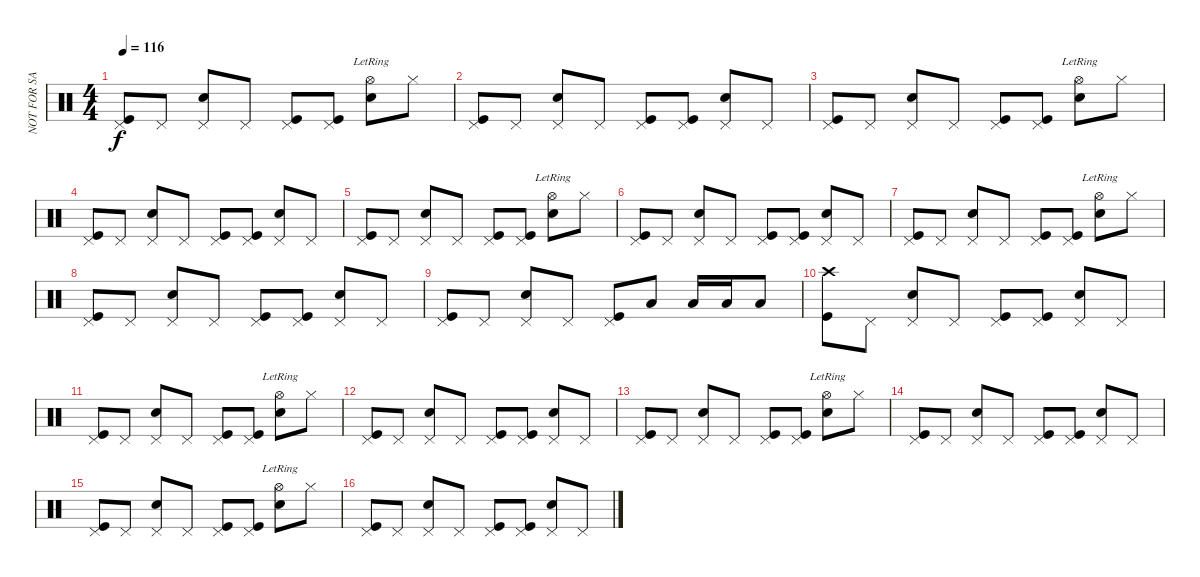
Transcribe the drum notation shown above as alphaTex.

\track ("NOT FOR SALE OR PROFIT" "NOT FOR SA") {instrument percussion}
\staff {score}
\articulation defaults
\ts (4 4)
\tempo 116
\clef neutral
\ks c
("Pedal Hi-Hat (hit)" "Kick (hit)").8{dy f} "Pedal Hi-Hat (hit)".8 ("Pedal Hi-Hat (hit)" "Snare (hit) 2").8 "Pedal Hi-Hat (hit)".8 ("Pedal Hi-Hat (hit)" "Kick (hit)").8 ("Pedal Hi-Hat (hit)" "Kick (hit)").8 ("Hi-Hat (open)"{lr} "Snare (hit) 2").8 "Hi-Hat (closed)".8 |
("Pedal Hi-Hat (hit)" "Kick (hit)").8 "Pedal Hi-Hat (hit)".8 ("Pedal Hi-Hat (hit)" "Snare (hit) 2").8 "Pedal Hi-Hat (hit)".8 ("Pedal Hi-Hat (hit)" "Kick (hit)").8 ("Pedal Hi-Hat (hit)" "Kick (hit)").8 ("Pedal Hi-Hat (hit)" "Snare (hit) 2").8 "Pedal Hi-Hat (hit)".8 |
("Pedal Hi-Hat (hit)" "Kick (hit)").8 "Pedal Hi-Hat (hit)".8 ("Pedal Hi-Hat (hit)" "Snare (hit) 2").8 "Pedal Hi-Hat (hit)".8 ("Pedal Hi-Hat (hit)" "Kick (hit)").8 ("Pedal Hi-Hat (hit)" "Kick (hit)").8 ("Hi-Hat (open)"{lr} "Snare (hit) 2").8 "Hi-Hat (closed)".8 |
("Pedal Hi-Hat (hit)" "Kick (hit)").8 "Pedal Hi-Hat (hit)".8 ("Pedal Hi-Hat (hit)" "Snare (hit) 2").8 "Pedal Hi-Hat (hit)".8 ("Pedal Hi-Hat (hit)" "Kick (hit)").8 ("Pedal Hi-Hat (hit)" "Kick (hit)").8 ("Pedal Hi-Hat (hit)" "Snare (hit) 2").8 "Pedal Hi-Hat (hit)".8 |
("Pedal Hi-Hat (hit)" "Kick (hit)").8 "Pedal Hi-Hat (hit)".8 ("Pedal Hi-Hat (hit)" "Snare (hit) 2").8 "Pedal Hi-Hat (hit)".8 ("Pedal Hi-Hat (hit)" "Kick (hit)").8 ("Pedal Hi-Hat (hit)" "Kick (hit)").8 ("Hi-Hat (open)"{lr} "Snare (hit) 2").8 "Hi-Hat (closed)".8 |
("Pedal Hi-Hat (hit)" "Kick (hit)").8 "Pedal Hi-Hat (hit)".8 ("Pedal Hi-Hat (hit)" "Snare (hit) 2").8 "Pedal Hi-Hat (hit)".8 ("Pedal Hi-Hat (hit)" "Kick (hit)").8 ("Pedal Hi-Hat (hit)" "Kick (hit)").8 ("Pedal Hi-Hat (hit)" "Snare (hit) 2").8 "Pedal Hi-Hat (hit)".8 |
("Pedal Hi-Hat (hit)" "Kick (hit)").8 "Pedal Hi-Hat (hit)".8 ("Pedal Hi-Hat (hit)" "Snare (hit) 2").8 "Pedal Hi-Hat (hit)".8 ("Pedal Hi-Hat (hit)" "Kick (hit)").8 ("Pedal Hi-Hat (hit)" "Kick (hit)").8 ("Hi-Hat (open)"{lr} "Snare (hit) 2").8 "Hi-Hat (closed)".8 |
("Pedal Hi-Hat (hit)" "Kick (hit)").8 "Pedal Hi-Hat (hit)".8 ("Pedal Hi-Hat (hit)" "Snare (hit) 2").8 "Pedal Hi-Hat (hit)".8 ("Pedal Hi-Hat (hit)" "Kick (hit)").8 ("Pedal Hi-Hat (hit)" "Kick (hit)").8 ("Pedal Hi-Hat (hit)" "Snare (hit) 2").8 "Pedal Hi-Hat (hit)".8 |
("Pedal Hi-Hat (hit)" "Kick (hit)").8 "Pedal Hi-Hat (hit)".8 ("Pedal Hi-Hat (hit)" "Snare (hit) 2").8 "Pedal Hi-Hat (hit)".8 ("Pedal Hi-Hat (hit)" "Kick (hit)").8 "Low Tom (hit)".8 "Low Tom (hit)".16 "Low Tom (hit)".16 "Low Tom (hit)".8 |
("Crash high (hit)" "Kick (hit)").8 "Pedal Hi-Hat (hit)".8 ("Pedal Hi-Hat (hit)" "Snare (hit) 2").8 "Pedal Hi-Hat (hit)".8 ("Pedal Hi-Hat (hit)" "Kick (hit)").8 ("Pedal Hi-Hat (hit)" "Kick (hit)").8 ("Pedal Hi-Hat (hit)" "Snare (hit) 2").8 "Pedal Hi-Hat (hit)".8 |
("Pedal Hi-Hat (hit)" "Kick (hit)").8 "Pedal Hi-Hat (hit)".8 ("Pedal Hi-Hat (hit)" "Snare (hit) 2").8 "Pedal Hi-Hat (hit)".8 ("Pedal Hi-Hat (hit)" "Kick (hit)").8 ("Pedal Hi-Hat (hit)" "Kick (hit)").8 ("Hi-Hat (open)"{lr} "Snare (hit) 2").8 "Hi-Hat (closed)".8 |
("Pedal Hi-Hat (hit)" "Kick (hit)").8 "Pedal Hi-Hat (hit)".8 ("Pedal Hi-Hat (hit)" "Snare (hit) 2").8 "Pedal Hi-Hat (hit)".8 ("Pedal Hi-Hat (hit)" "Kick (hit)").8 ("Pedal Hi-Hat (hit)" "Kick (hit)").8 ("Pedal Hi-Hat (hit)" "Snare (hit) 2").8 "Pedal Hi-Hat (hit)".8 |
("Pedal Hi-Hat (hit)" "Kick (hit)").8 "Pedal Hi-Hat (hit)".8 ("Pedal Hi-Hat (hit)" "Snare (hit) 2").8 "Pedal Hi-Hat (hit)".8 ("Pedal Hi-Hat (hit)" "Kick (hit)").8 ("Pedal Hi-Hat (hit)" "Kick (hit)").8 ("Hi-Hat (open)"{lr} "Snare (hit) 2").8 "Hi-Hat (closed)".8 |
("Pedal Hi-Hat (hit)" "Kick (hit)").8 "Pedal Hi-Hat (hit)".8 ("Pedal Hi-Hat (hit)" "Snare (hit) 2").8 "Pedal Hi-Hat (hit)".8 ("Pedal Hi-Hat (hit)" "Kick (hit)").8 ("Pedal Hi-Hat (hit)" "Kick (hit)").8 ("Pedal Hi-Hat (hit)" "Snare (hit) 2").8 "Pedal Hi-Hat (hit)".8 |
("Pedal Hi-Hat (hit)" "Kick (hit)").8 "Pedal Hi-Hat (hit)".8 ("Pedal Hi-Hat (hit)" "Snare (hit) 2").8 "Pedal Hi-Hat (hit)".8 ("Pedal Hi-Hat (hit)" "Kick (hit)").8 ("Pedal Hi-Hat (hit)" "Kick (hit)").8 ("Hi-Hat (open)"{lr} "Snare (hit) 2").8 "Hi-Hat (closed)".8 |
("Pedal Hi-Hat (hit)" "Kick (hit)").8 "Pedal Hi-Hat (hit)".8 ("Pedal Hi-Hat (hit)" "Snare (hit) 2").8 "Pedal Hi-Hat (hit)".8 ("Pedal Hi-Hat (hit)" "Kick (hit)").8 ("Pedal Hi-Hat (hit)" "Kick (hit)").8 ("Pedal Hi-Hat (hit)" "Snare (hit) 2").8 "Pedal Hi-Hat (hit)".8
